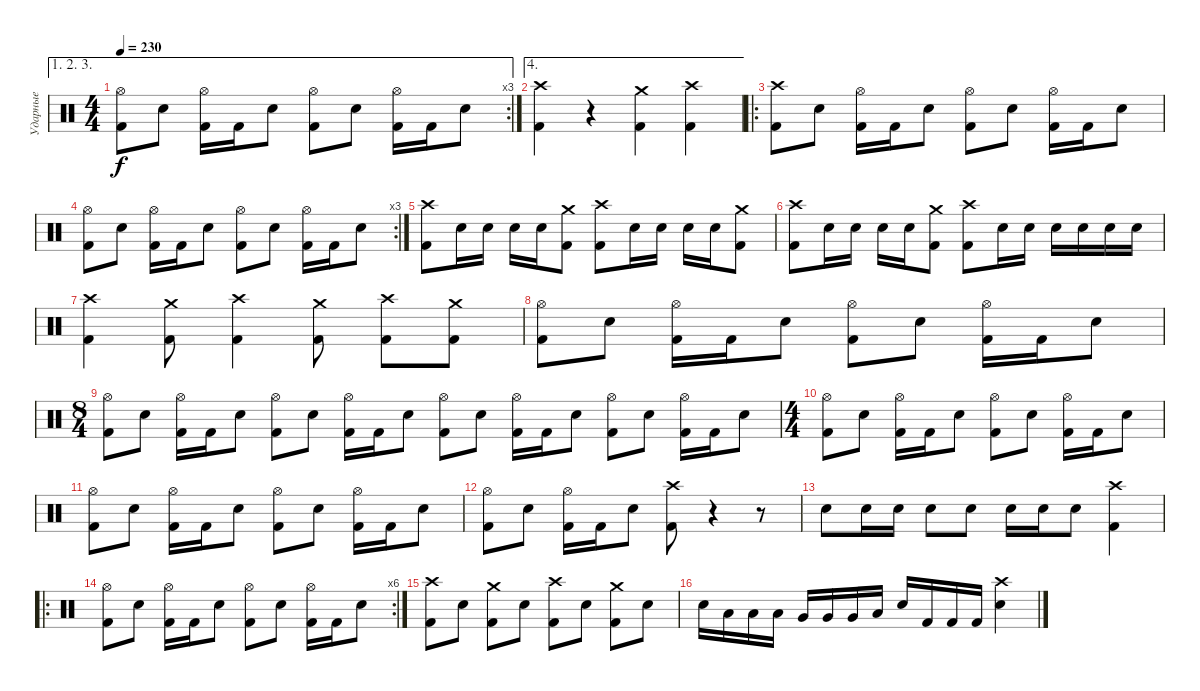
\track ("Ударные" "Ударные") {instrument percussion}
\staff {score}
\articulation defaults
\ae (1 2 3)
\rc 3
\ts (4 4)
\tempo 230
\clef neutral
\ks c
("Hi-Hat (open)" "Kick (hit) 2").8{dy f} "Snare (hit) 2".8 ("Hi-Hat (open)" "Kick (hit) 2").16 "Kick (hit) 2".16 "Snare (hit) 2".8 ("Hi-Hat (open)" "Kick (hit) 2").8 "Snare (hit) 2".8 ("Hi-Hat (open)" "Kick (hit) 2").16 "Kick (hit) 2".16 "Snare (hit) 2".8 |
\ae 4
("Crash high (hit)" "Kick (hit) 2").4 r.4 ("Crash medium (hit)" "Kick (hit) 2").4 ("Crash high (hit)" "Kick (hit) 2").4 |
\ro
("Crash high (hit)" "Kick (hit) 2").8 "Snare (hit) 2".8 ("Hi-Hat (open)" "Kick (hit) 2").16 "Kick (hit) 2".16 "Snare (hit) 2".8 ("Hi-Hat (open)" "Kick (hit) 2").8 "Snare (hit) 2".8 ("Hi-Hat (open)" "Kick (hit) 2").16 "Kick (hit) 2".16 "Snare (hit) 2".8 |
\rc 3
("Hi-Hat (open)" "Kick (hit) 2").8 "Snare (hit) 2".8 ("Hi-Hat (open)" "Kick (hit) 2").16 "Kick (hit) 2".16 "Snare (hit) 2".8 ("Hi-Hat (open)" "Kick (hit) 2").8 "Snare (hit) 2".8 ("Hi-Hat (open)" "Kick (hit) 2").16 "Kick (hit) 2".16 "Snare (hit) 2".8 |
("Crash high (hit)" "Kick (hit) 2").8 "Snare (hit) 2".16 "Snare (hit) 2".16 "Snare (hit) 2".16 "Snare (hit) 2".16 ("Crash medium (hit)" "Kick (hit) 2").8 ("Crash high (hit)" "Kick (hit) 2").8 "Snare (hit) 2".16 "Snare (hit) 2".16 "Snare (hit) 2".16 "Snare (hit) 2".16 ("Crash medium (hit)" "Kick (hit) 2").8 |
("Crash high (hit)" "Kick (hit) 2").8 "Snare (hit) 2".16 "Snare (hit) 2".16 "Snare (hit) 2".16 "Snare (hit) 2".16 ("Crash medium (hit)" "Kick (hit) 2").8 ("Crash high (hit)" "Kick (hit) 2").8 "Snare (hit) 2".16 "Snare (hit) 2".16 "Snare (hit) 2".16 "Snare (hit) 2".16 "Snare (hit) 2".16 "Snare (hit) 2".16 |
("Crash high (hit)" "Kick (hit) 2").4 ("Crash medium (hit)" "Kick (hit) 2").8 ("Crash high (hit)" "Kick (hit) 2").4 ("Crash medium (hit)" "Kick (hit) 2").8 ("Crash high (hit)" "Kick (hit) 2").8 ("Crash medium (hit)" "Kick (hit) 2").8 |
("Hi-Hat (open)" "Kick (hit) 2").8 "Snare (hit) 2".8 ("Hi-Hat (open)" "Kick (hit) 2").16 "Kick (hit) 2".16 "Snare (hit) 2".8 ("Hi-Hat (open)" "Kick (hit) 2").8 "Snare (hit) 2".8 ("Hi-Hat (open)" "Kick (hit) 2").16 "Kick (hit) 2".16 "Snare (hit) 2".8 |
\ts (8 4)
("Hi-Hat (open)" "Kick (hit) 2").8 "Snare (hit) 2".8 ("Hi-Hat (open)" "Kick (hit) 2").16 "Kick (hit) 2".16 "Snare (hit) 2".8 ("Hi-Hat (open)" "Kick (hit) 2").8 "Snare (hit) 2".8 ("Hi-Hat (open)" "Kick (hit) 2").16 "Kick (hit) 2".16 "Snare (hit) 2".8 ("Hi-Hat (open)" "Kick (hit) 2").8 "Snare (hit) 2".8 ("Hi-Hat (open)" "Kick (hit) 2").16 "Kick (hit) 2".16 "Snare (hit) 2".8 ("Hi-Hat (open)" "Kick (hit) 2").8 "Snare (hit) 2".8 ("Hi-Hat (open)" "Kick (hit) 2").16 "Kick (hit) 2".16 "Snare (hit) 2".8 |
\ts (4 4)
("Hi-Hat (open)" "Kick (hit) 2").8 "Snare (hit) 2".8 ("Hi-Hat (open)" "Kick (hit) 2").16 "Kick (hit) 2".16 "Snare (hit) 2".8 ("Hi-Hat (open)" "Kick (hit) 2").8 "Snare (hit) 2".8 ("Hi-Hat (open)" "Kick (hit) 2").16 "Kick (hit) 2".16 "Snare (hit) 2".8 |
("Hi-Hat (open)" "Kick (hit) 2").8 "Snare (hit) 2".8 ("Hi-Hat (open)" "Kick (hit) 2").16 "Kick (hit) 2".16 "Snare (hit) 2".8 ("Hi-Hat (open)" "Kick (hit) 2").8 "Snare (hit) 2".8 ("Hi-Hat (open)" "Kick (hit) 2").16 "Kick (hit) 2".16 "Snare (hit) 2".8 |
("Hi-Hat (open)" "Kick (hit) 2").8 "Snare (hit) 2".8 ("Hi-Hat (open)" "Kick (hit) 2").16 "Kick (hit) 2".16 "Snare (hit) 2".8 ("Crash high (hit)" "Kick (hit) 2").8 r.4 r.8 |
"Snare (hit) 2".8 "Snare (hit) 2".16 "Snare (hit) 2".16 "Snare (hit) 2".8 "Snare (hit) 2".8 "Snare (hit) 2".16 "Snare (hit) 2".16 "Snare (hit) 2".8 ("Crash high (hit)" "Kick (hit) 2").4 |
\ro
\rc 6
("Hi-Hat (open)" "Kick (hit) 2").8 "Snare (hit) 2".8 ("Hi-Hat (open)" "Kick (hit) 2").16 "Kick (hit) 2".16 "Snare (hit) 2".8 ("Hi-Hat (open)" "Kick (hit) 2").8 "Snare (hit) 2".8 ("Hi-Hat (open)" "Kick (hit) 2").16 "Kick (hit) 2".16 "Snare (hit) 2".8 |
("Crash high (hit)" "Kick (hit) 2").8 "Snare (hit) 2".8 ("Crash medium (hit)" "Kick (hit) 2").8 "Snare (hit) 2".8 ("Crash high (hit)" "Kick (hit) 2").8 "Snare (hit) 2".8 ("Crash medium (hit)" "Kick (hit) 2").8 "Snare (hit) 2".8 |
"Snare (hit) 2".16 "Low Tom (hit)".16 "Low Tom (hit)".16 "Low Tom (hit)".16 "Very Low Tom (hit)".16 "Very Low Tom (hit)".16 "Very Low Tom (hit)".16 "Low Floor Tom (hit)".16 "Snare (hit) 2".16 "Kick (hit) 2".16 "Kick (hit) 2".16 "Kick (hit) 2".16 ("Crash high (hit)" "Snare (hit) 2").4
